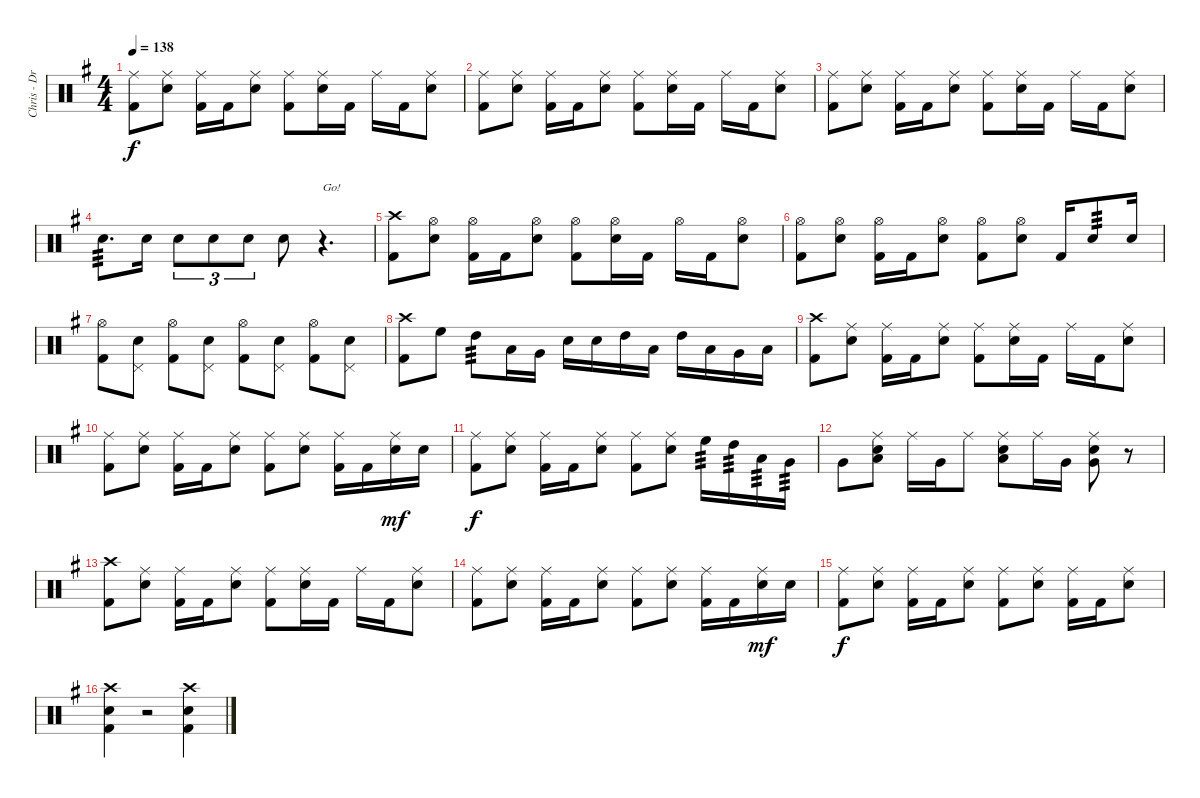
\track ("Chris - Drums" "Chris - Dr") {instrument percussion}
\staff {score}
\articulation defaults
\ts (4 4)
\tempo 138
\clef neutral
\ks g
("Ride (middle)" "Kick (hit) 2").8{dy f} ("Ride (middle)" "Electric Snare (hit)").8 ("Ride (middle)" "Kick (hit) 2").16 "Kick (hit) 2".16 ("Ride (middle)" "Electric Snare (hit)").8 ("Ride (middle)" "Kick (hit) 2").8 ("Ride (middle)" "Electric Snare (hit)").16 "Kick (hit) 2".16 "Ride (middle)".16 "Kick (hit) 2".16 ("Ride (middle)" "Electric Snare (hit)").8 |
("Ride (middle)" "Kick (hit) 2").8 ("Ride (middle)" "Electric Snare (hit)").8 ("Ride (middle)" "Kick (hit) 2").16 "Kick (hit) 2".16 ("Ride (middle)" "Electric Snare (hit)").8 ("Ride (middle)" "Kick (hit) 2").8 ("Ride (middle)" "Electric Snare (hit)").16 "Kick (hit) 2".16 "Ride (middle)".16 "Kick (hit) 2".16 ("Ride (middle)" "Electric Snare (hit)").8 |
("Ride (middle)" "Kick (hit) 2").8 ("Ride (middle)" "Electric Snare (hit)").8 ("Ride (middle)" "Kick (hit) 2").16 "Kick (hit) 2".16 ("Ride (middle)" "Electric Snare (hit)").8 ("Ride (middle)" "Kick (hit) 2").8 ("Ride (middle)" "Electric Snare (hit)").16 "Kick (hit) 2".16 "Ride (middle)".16 "Kick (hit) 2".16 ("Ride (middle)" "Electric Snare (hit)").8 |
"Electric Snare (hit)".8{d tp 3} "Electric Snare (hit)".16 "Electric Snare (hit)".8{tu (3 2)} "Electric Snare (hit)".8{tu (3 2)} "Electric Snare (hit)".8{tu (3 2)} "Electric Snare (hit)".8 r.4{d txt "Go!"} |
("Crash high (hit)" "Kick (hit) 2").8 ("Hi-Hat (open)" "Electric Snare (hit)").8 ("Hi-Hat (open)" "Kick (hit) 2").16 "Kick (hit) 2".16 ("Hi-Hat (open)" "Electric Snare (hit)").8 ("Hi-Hat (open)" "Kick (hit) 2").8 ("Hi-Hat (open)" "Electric Snare (hit)").16 "Kick (hit) 2".16 "Hi-Hat (open)".16 "Kick (hit) 2".16 ("Hi-Hat (open)" "Electric Snare (hit)").8 |
("Hi-Hat (open)" "Kick (hit) 2").8 ("Hi-Hat (open)" "Electric Snare (hit)").8 ("Hi-Hat (open)" "Kick (hit) 2").16 "Kick (hit) 2".16 ("Hi-Hat (open)" "Electric Snare (hit)").8 ("Hi-Hat (open)" "Kick (hit) 2").8 ("Hi-Hat (open)" "Electric Snare (hit)").8 "Kick (hit) 2".16 "Electric Snare (hit)".8{tp 3} "Electric Snare (hit)".16 |
("Hi-Hat (open)" "Kick (hit) 2").8 ("Pedal Hi-Hat (hit)" "Electric Snare (hit)").8 ("Hi-Hat (open)" "Kick (hit) 2").8 ("Pedal Hi-Hat (hit)" "Electric Snare (hit)").8 ("Hi-Hat (open)" "Kick (hit) 2").8 ("Pedal Hi-Hat (hit)" "Electric Snare (hit)").8 ("Hi-Hat (open)" "Kick (hit) 2").8 ("Pedal Hi-Hat (hit)" "Electric Snare (hit)").8 |
("Crash high (hit)" "Kick (hit) 2").8 "High Floor Tom (hit)".8 "High Tom (hit)".8{tp 3} "Low Tom (hit)".16 "Very Low Tom (hit)".16 "Electric Snare (hit)".16 "Electric Snare (hit)".16 "High Tom (hit)".16 "Low Tom (hit)".16 "High Tom (hit)".16 "Low Tom (hit)".16 "Very Low Tom (hit)".16 "Low Floor Tom (hit)".16 |
("Crash high (hit)" "Kick (hit) 2").8 ("Ride (middle)" "Electric Snare (hit)").8 ("Ride (middle)" "Kick (hit) 2").16 "Kick (hit) 2".16 ("Ride (middle)" "Electric Snare (hit)").8 ("Ride (middle)" "Kick (hit) 2").8 ("Ride (middle)" "Electric Snare (hit)").16 "Kick (hit) 2".16 "Ride (middle)".16 "Kick (hit) 2".16 ("Ride (middle)" "Electric Snare (hit)").8 |
("Ride (middle)" "Kick (hit) 2").8 ("Ride (middle)" "Electric Snare (hit)").8 ("Ride (middle)" "Kick (hit) 2").16 "Kick (hit) 2".16 ("Ride (middle)" "Electric Snare (hit)").8 ("Ride (middle)" "Kick (hit) 2").8 ("Ride (middle)" "Electric Snare (hit)").8 ("Ride (middle)" "Kick (hit) 2").16 "Kick (hit) 2".16 ("Ride (middle)" "Electric Snare (hit)").16{dy mf} "Electric Snare (hit)".16 |
("Ride (middle)" "Kick (hit) 2").8{dy f} ("Ride (middle)" "Electric Snare (hit)").8 ("Ride (middle)" "Kick (hit) 2").16 "Kick (hit) 2".16 ("Ride (middle)" "Electric Snare (hit)").8 ("Ride (middle)" "Kick (hit) 2").8 ("Ride (middle)" "Electric Snare (hit)").8 "High Floor Tom (hit)".16{tp 3} "High Tom (hit)".16{tp 3} "Low Tom (hit)".16{tp 3} "Very Low Tom (hit)".16{tp 3} |
"Very Low Tom (hit)".8 ("Ride (middle)" "Low Tom (hit)" "Electric Snare (hit)").8 "Ride (middle)".16 "Very Low Tom (hit)".16 "Ride (middle)".8 ("Ride (middle)" "Low Tom (hit)" "Electric Snare (hit)").8 "Ride (middle)".16 "Very Low Tom (hit)".16 ("Ride (middle)" "Very Low Tom (hit)" "Electric Snare (hit)").8 r.8 |
("Crash high (hit)" "Kick (hit) 2").8 ("Ride (middle)" "Electric Snare (hit)").8 ("Ride (middle)" "Kick (hit) 2").16 "Kick (hit) 2".16 ("Ride (middle)" "Electric Snare (hit)").8 ("Ride (middle)" "Kick (hit) 2").8 ("Ride (middle)" "Electric Snare (hit)").16 "Kick (hit) 2".16 "Ride (middle)".16 "Kick (hit) 2".16 ("Ride (middle)" "Electric Snare (hit)").8 |
("Ride (middle)" "Kick (hit) 2").8 ("Ride (middle)" "Electric Snare (hit)").8 ("Ride (middle)" "Kick (hit) 2").16 "Kick (hit) 2".16 ("Ride (middle)" "Electric Snare (hit)").8 ("Ride (middle)" "Kick (hit) 2").8 ("Ride (middle)" "Electric Snare (hit)").8 ("Ride (middle)" "Kick (hit) 2").16 "Kick (hit) 2".16 ("Ride (middle)" "Electric Snare (hit)").16{dy mf} "Electric Snare (hit)".16 |
("Ride (middle)" "Kick (hit) 2").8{dy f} ("Ride (middle)" "Electric Snare (hit)").8 ("Ride (middle)" "Kick (hit) 2").16 "Kick (hit) 2".16 ("Ride (middle)" "Electric Snare (hit)").8 ("Ride (middle)" "Kick (hit) 2").8 ("Ride (middle)" "Electric Snare (hit)").8 ("Ride (middle)" "Kick (hit) 2").16 "Kick (hit) 2".16 ("Ride (middle)" "Electric Snare (hit)").8 |
("Crash high (hit)" "Electric Snare (hit)" "Kick (hit) 2").4 r.2 ("Crash high (hit)" "Electric Snare (hit)" "Kick (hit) 2").4
